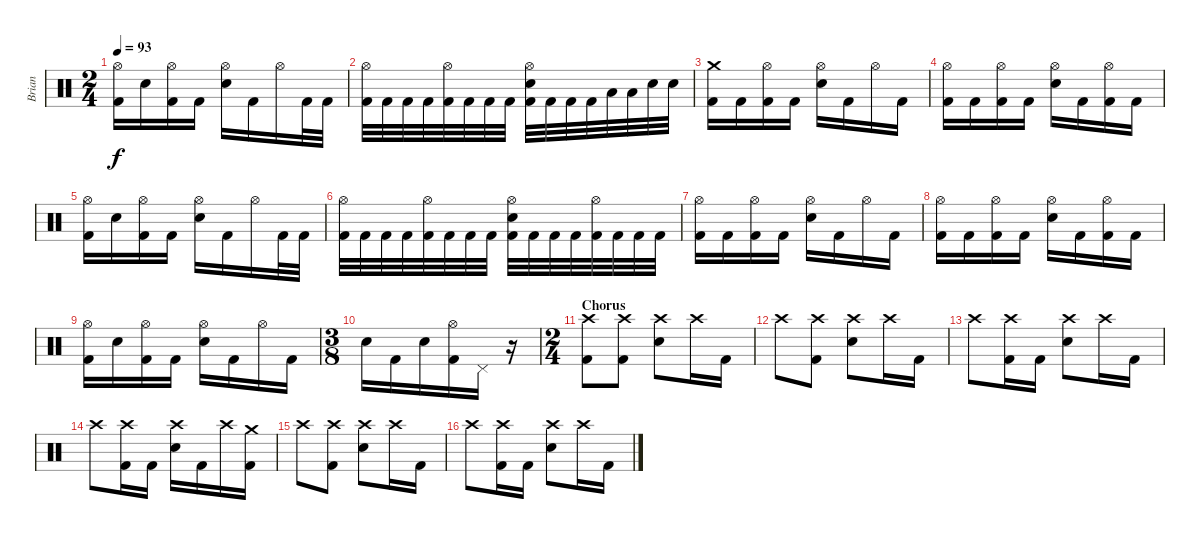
\track ("Brian" "Brian") {instrument percussion}
\staff {score}
\articulation defaults
\ts (2 4)
\tempo 93
\clef neutral
\ks c
("Hi-Hat (open)" "Kick (hit) 2").16{dy f} "Electric Snare (hit)".16 ("Hi-Hat (open)" "Kick (hit) 2").16 "Kick (hit) 2".16 ("Hi-Hat (open)" "Electric Snare (hit)").16 "Kick (hit) 2".16 "Hi-Hat (open)".16 "Kick (hit) 2".32 "Kick (hit) 2".32 |
("Hi-Hat (open)" "Kick (hit) 2").32 "Kick (hit) 2".32 "Kick (hit) 2".32 "Kick (hit) 2".32 ("Hi-Hat (open)" "Kick (hit) 2").32 "Kick (hit) 2".32 "Kick (hit) 2".32 "Kick (hit) 2".32 ("Hi-Hat (open)" "Electric Snare (hit)" "Kick (hit) 2").32 "Kick (hit) 2".32 "Kick (hit) 2".32 "Kick (hit) 2".32 "Low Tom (hit)".32 "Low Tom (hit)".32 "Electric Snare (hit)".32 "Electric Snare (hit)".32 |
("Crash medium (hit)" "Kick (hit) 2").16 "Kick (hit) 2".16 ("Hi-Hat (open)" "Kick (hit) 2").16 "Kick (hit) 2".16 ("Hi-Hat (open)" "Electric Snare (hit)").16 "Kick (hit) 2".16 "Hi-Hat (open)".16 "Kick (hit) 2".16 |
("Hi-Hat (open)" "Kick (hit) 2").16 "Kick (hit) 2".16 ("Hi-Hat (open)" "Kick (hit) 2").16 "Kick (hit) 2".16 ("Hi-Hat (open)" "Electric Snare (hit)").16 "Kick (hit) 2".16 ("Hi-Hat (open)" "Kick (hit) 2").16 "Kick (hit) 2".16 |
("Hi-Hat (open)" "Kick (hit) 2").16 "Electric Snare (hit)".16 ("Hi-Hat (open)" "Kick (hit) 2").16 "Kick (hit) 2".16 ("Hi-Hat (open)" "Electric Snare (hit)").16 "Kick (hit) 2".16 "Hi-Hat (open)".16 "Kick (hit) 2".32 "Kick (hit) 2".32 |
("Hi-Hat (open)" "Kick (hit) 2").32 "Kick (hit) 2".32 "Kick (hit) 2".32 "Kick (hit) 2".32 ("Hi-Hat (open)" "Kick (hit) 2").32 "Kick (hit) 2".32 "Kick (hit) 2".32 "Kick (hit) 2".32 ("Hi-Hat (open)" "Electric Snare (hit)" "Kick (hit) 2").32 "Kick (hit) 2".32 "Kick (hit) 2".32 "Kick (hit) 2".32 ("Hi-Hat (open)" "Kick (hit) 2").32 "Kick (hit) 2".32 "Kick (hit) 2".32 "Kick (hit) 2".32 |
("Hi-Hat (open)" "Kick (hit) 2").16 "Kick (hit) 2".16 ("Hi-Hat (open)" "Kick (hit) 2").16 "Kick (hit) 2".16 ("Hi-Hat (open)" "Electric Snare (hit)").16 "Kick (hit) 2".16 "Hi-Hat (open)".16 "Kick (hit) 2".16 |
("Hi-Hat (open)" "Kick (hit) 2").16 "Kick (hit) 2".16 ("Hi-Hat (open)" "Kick (hit) 2").16 "Kick (hit) 2".16 ("Hi-Hat (open)" "Electric Snare (hit)").16 "Kick (hit) 2".16 ("Hi-Hat (open)" "Kick (hit) 2").16 "Kick (hit) 2".16 |
("Hi-Hat (open)" "Kick (hit) 2").16 "Electric Snare (hit)".16 ("Hi-Hat (open)" "Kick (hit) 2").16 "Kick (hit) 2".16 ("Hi-Hat (open)" "Electric Snare (hit)").16 "Kick (hit) 2".16 "Hi-Hat (open)".16 "Kick (hit) 2".16 |
\ts (3 8)
"Electric Snare (hit)".16 "Kick (hit) 2".16 "Electric Snare (hit)".16 ("Hi-Hat (open)" "Kick (hit) 2").16 "Pedal Hi-Hat (hit)".16 r.16 |
\ts (2 4)
\section ("" "Chorus")
("Crash high (hit)" "Kick (hit) 2").8 ("Crash high (hit)" "Kick (hit) 2").8 ("Crash high (hit)" "Electric Snare (hit)").8 "Crash high (hit)".16 "Kick (hit) 2".16 |
"Crash high (hit)".8 ("Crash high (hit)" "Kick (hit) 2").8 ("Crash high (hit)" "Electric Snare (hit)").8 "Crash high (hit)".16 "Kick (hit) 2".16 |
"Crash high (hit)".8 ("Crash high (hit)" "Kick (hit) 2").16 "Kick (hit) 2".16 ("Crash high (hit)" "Electric Snare (hit)").8 "Crash high (hit)".16 "Kick (hit) 2".16 |
"Crash high (hit)".8 ("Crash high (hit)" "Kick (hit) 2").16 "Kick (hit) 2".16 ("Crash high (hit)" "Electric Snare (hit)").16 "Kick (hit) 2".16 "Crash high (hit)".16 ("Crash medium (hit)" "Kick (hit) 2").16 |
"Crash high (hit)".8 ("Crash high (hit)" "Kick (hit) 2").8 ("Crash high (hit)" "Electric Snare (hit)").8 "Crash high (hit)".16 "Kick (hit) 2".16 |
"Crash high (hit)".8 ("Crash high (hit)" "Kick (hit) 2").16 "Kick (hit) 2".16 ("Crash high (hit)" "Electric Snare (hit)").8 "Crash high (hit)".16 "Kick (hit) 2".16
